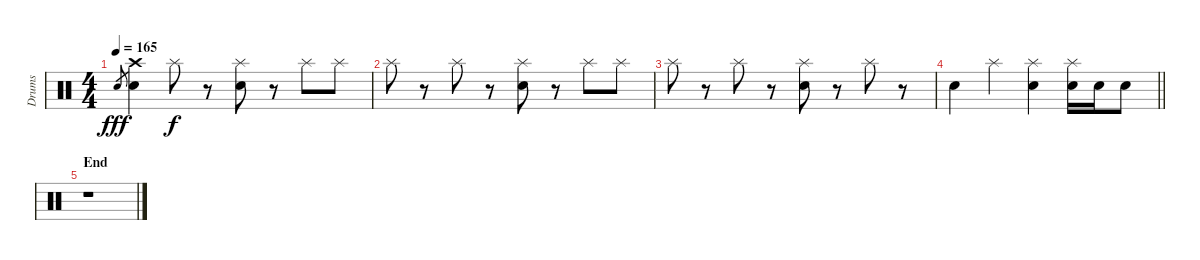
\track ("Drums" "Drums") {instrument percussion}
\staff {score}
\articulation defaults
\ts (4 4)
\tempo 165
\clef neutral
\ks c "Electric Snare (hit)".8{gr dy fff}
("Crash high (hit)" "Electric Snare (hit)").4{volume 10} "Splash (hit)".8{dy f} r.8 ("Splash (hit)" "Electric Snare (hit)").8{volume 9} r.8 "Splash (hit)".8 "Splash (hit)".8 |
"Splash (hit)".8{volume 8} r.8 "Splash (hit)".8 r.8 ("Splash (hit)" "Electric Snare (hit)").8{volume 7} r.8 "Splash (hit)".8 "Splash (hit)".8 |
"Splash (hit)".8{volume 6} r.8 "Splash (hit)".8 r.8 ("Splash (hit)" "Electric Snare (hit)").8{volume 5} r.8 "Splash (hit)".8 r.8 |
\barLineRight lightlight "Electric Snare (hit)".4{volume 4} "Splash (hit)".4
("Splash (hit)" "Electric Snare (hit)").4{volume 3} ("Splash (hit)" "Electric Snare (hit)").16 "Electric Snare (hit)".16 "Electric Snare (hit)".8 |
\section ("" "End")
r.1
